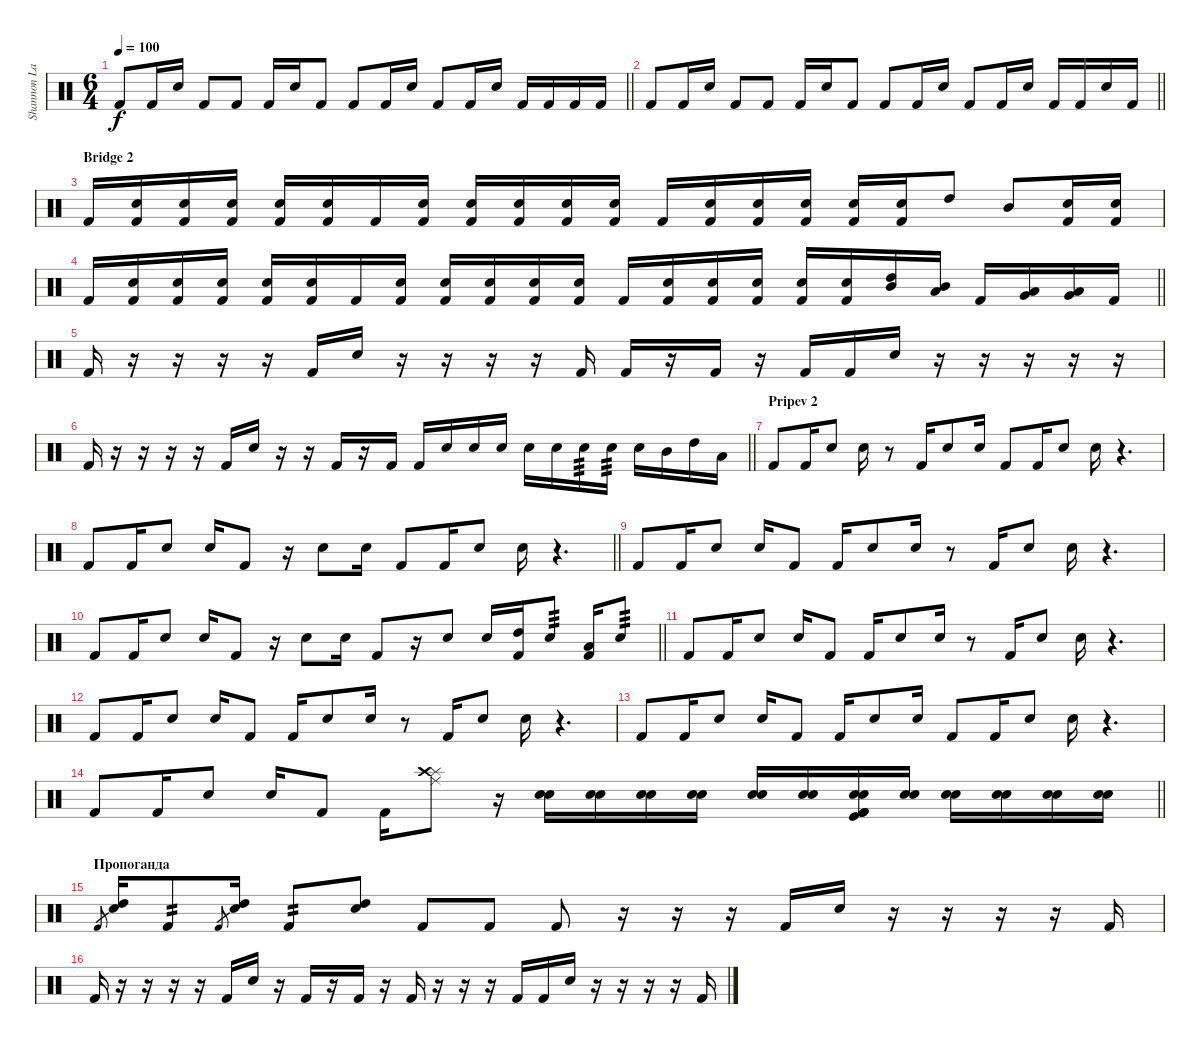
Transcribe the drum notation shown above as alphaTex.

\track ("Shannon Larkin [2]" "Shannon La") {instrument percussion}
\staff {score}
\articulation defaults
\ts (6 4)
\tempo 100
\clef neutral
\barLineRight lightlight
\ks c "Kick (hit) 2".8{dy f} "Kick (hit) 2".16 "Electric Snare (hit)".16 "Kick (hit) 2".8 "Kick (hit) 2".8 "Kick (hit) 2".16 "Electric Snare (hit)".16 "Kick (hit) 2".8 "Kick (hit) 2".8 "Kick (hit) 2".16 "Electric Snare (hit)".16 "Kick (hit) 2".8 "Kick (hit) 2".16 "Electric Snare (hit)".16 "Kick (hit) 2".16 "Kick (hit) 2".16 "Kick (hit) 2".16 "Kick (hit) 2".16
|
\barLineRight lightlight "Kick (hit) 2".8 "Kick (hit) 2".16 "Electric Snare (hit)".16 "Kick (hit) 2".8 "Kick (hit) 2".8 "Kick (hit) 2".16 "Electric Snare (hit)".16 "Kick (hit) 2".8 "Kick (hit) 2".8 "Kick (hit) 2".16 "Electric Snare (hit)".16 "Kick (hit) 2".8 "Kick (hit) 2".16 "Electric Snare (hit)".16 "Kick (hit) 2".16 "Kick (hit) 2".16 "Electric Snare (hit)".16 "Kick (hit) 2".16
|
\section ("" "Bridge 2")
"Kick (hit) 2".16 ("Kick (hit) 2" "Electric Snare (hit)").16 ("Kick (hit) 2" "Electric Snare (hit)").16 ("Kick (hit) 2" "Electric Snare (hit)").16 ("Kick (hit) 2" "Electric Snare (hit)").16 ("Kick (hit) 2" "Electric Snare (hit)").16 "Kick (hit) 2".16 ("Kick (hit) 2" "Electric Snare (hit)").16 ("Kick (hit) 2" "Electric Snare (hit)").16 ("Kick (hit) 2" "Electric Snare (hit)").16 ("Kick (hit) 2" "Electric Snare (hit)").16 ("Kick (hit) 2" "Electric Snare (hit)").16 "Kick (hit) 2".16 ("Kick (hit) 2" "Electric Snare (hit)").16 ("Kick (hit) 2" "Electric Snare (hit)").16 ("Kick (hit) 2" "Electric Snare (hit)").16 ("Kick (hit) 2" "Electric Snare (hit)").16 ("Kick (hit) 2" "Electric Snare (hit)").16 "High Tom (hit)".8 "Mid Tom (hit)".8 ("Kick (hit) 2" "Snare (hit) 2").16 ("Kick (hit) 2" "Snare (hit) 2").16 |
\barLineRight lightlight "Kick (hit) 2".16
("Kick (hit) 2" "Electric Snare (hit)").16 ("Kick (hit) 2" "Electric Snare (hit)").16 ("Kick (hit) 2" "Electric Snare (hit)").16 ("Kick (hit) 2" "Electric Snare (hit)").16 ("Kick (hit) 2" "Electric Snare (hit)").16 "Kick (hit) 2".16 ("Kick (hit) 2" "Electric Snare (hit)").16 ("Kick (hit) 2" "Electric Snare (hit)").16 ("Kick (hit) 2" "Electric Snare (hit)").16 ("Kick (hit) 2" "Electric Snare (hit)").16 ("Kick (hit) 2" "Electric Snare (hit)").16 "Kick (hit) 2".16 ("Kick (hit) 2" "Electric Snare (hit)").16 ("Kick (hit) 2" "Electric Snare (hit)").16 ("Kick (hit) 2" "Electric Snare (hit)").16 ("Kick (hit) 2" "Electric Snare (hit)").16 ("Kick (hit) 2" "Electric Snare (hit)").16 ("High Tom (hit)" "Mid Tom (hit)").16 ("Mid Tom (hit)" "Low Tom (hit)").16 "Kick (hit) 2".16 ("Low Tom (hit)" "Very Low Tom (hit)").16 ("Very Low Tom (hit)" "Low Floor Tom (hit)").16 "Kick (hit) 2".16 |
"Kick (hit) 2".16 r.16 r.16 r.16 r.16 "Kick (hit) 2".16 "Electric Snare (hit)".16 r.16 r.16 r.16 r.16 "Kick (hit) 2".16 "Kick (hit) 2".16 r.16 "Kick (hit) 2".16 r.16 "Kick (hit) 2".16 "Kick (hit) 2".16 "Electric Snare (hit)".16 r.16 r.16 r.16 r.16 r.16 |
\barLineRight lightlight "Kick (hit) 2".16
r.16 r.16 r.16 r.16 "Kick (hit) 2".16 "Electric Snare (hit)".16 r.16 r.16 "Kick (hit) 2".16 r.16 "Kick (hit) 2".16 "Kick (hit) 2".16 "Electric Snare (hit)".16 "Electric Snare (hit)".16 "Electric Snare (hit)".16 "Electric Snare (hit)".16 "Electric Snare (hit)".16 "Electric Snare (hit)".16{tp 3} "Electric Snare (hit)".16{tp 3} "Electric Snare (hit)".16 "Mid Tom (hit)".16 "High Tom (hit)".16 "Low Tom (hit)".16 |
\section ("" "Pripev 2")
"Kick (hit) 2".8 "Kick (hit) 2".16 "Electric Snare (hit)".8 "Electric Snare (hit)".16 r.8 "Kick (hit) 2".16 "Electric Snare (hit)".8 "Electric Snare (hit)".16 "Kick (hit) 2".8 "Kick (hit) 2".16 "Electric Snare (hit)".8 "Electric Snare (hit)".16 r.4{d} |
\barLineRight lightlight "Kick (hit) 2".8 "Kick (hit) 2".16 "Electric Snare (hit)".8 "Electric Snare (hit)".16 "Kick (hit) 2".8
r.16 "Electric Snare (hit)".8 "Electric Snare (hit)".16 "Kick (hit) 2".8 "Kick (hit) 2".16 "Electric Snare (hit)".8 "Electric Snare (hit)".16 r.4{d} |
"Kick (hit) 2".8 "Kick (hit) 2".16 "Electric Snare (hit)".8 "Electric Snare (hit)".16 "Kick (hit) 2".8 "Kick (hit) 2".16 "Electric Snare (hit)".8 "Electric Snare (hit)".16 r.8 "Kick (hit) 2".16 "Electric Snare (hit)".8 "Electric Snare (hit)".16 r.4{d} |
\barLineRight lightlight "Kick (hit) 2".8 "Kick (hit) 2".16 "Electric Snare (hit)".8 "Electric Snare (hit)".16 "Kick (hit) 2".8
r.16 "Electric Snare (hit)".8 "Electric Snare (hit)".16 "Kick (hit) 2".8 r.16 "Electric Snare (hit)".8 "Electric Snare (hit)".16 ("Kick (hit) 2" "High Tom (hit)").16 "Electric Snare (hit)".8{tp 3} ("Kick (hit) 2" "Low Tom (hit)").16 "Electric Snare (hit)".8{tp 3} |
"Kick (hit) 2".8 "Kick (hit) 2".16 "Electric Snare (hit)".8 "Electric Snare (hit)".16 "Kick (hit) 2".8 "Kick (hit) 2".16 "Electric Snare (hit)".8 "Electric Snare (hit)".16 r.8 "Kick (hit) 2".16 "Electric Snare (hit)".8 "Electric Snare (hit)".16 r.4{d} |
"Kick (hit) 2".8 "Kick (hit) 2".16 "Electric Snare (hit)".8 "Electric Snare (hit)".16 "Kick (hit) 2".8 "Kick (hit) 2".16 "Electric Snare (hit)".8 "Electric Snare (hit)".16 r.8 "Kick (hit) 2".16 "Electric Snare (hit)".8 "Electric Snare (hit)".16 r.4{d} |
"Kick (hit) 2".8 "Kick (hit) 2".16 "Electric Snare (hit)".8 "Electric Snare (hit)".16 "Kick (hit) 2".8 "Kick (hit) 2".16 "Electric Snare (hit)".8 "Electric Snare (hit)".16 "Kick (hit) 2".8 "Kick (hit) 2".16 "Electric Snare (hit)".8 "Electric Snare (hit)".16 r.4{d} |
\barLineRight lightlight "Kick (hit) 2".8 "Kick (hit) 2".16 "Electric Snare (hit)".8 "Electric Snare (hit)".16 "Kick (hit) 2".8 "Kick (hit) 2".16
("Ride (middle)" "Splash (hit)" "Crash high (hit)").8 r.16 ("Electric Snare (hit)" "Snare (hit) 2").16 ("Electric Snare (hit)" "Snare (hit) 2").16 ("Electric Snare (hit)" "Snare (hit) 2").16 ("Electric Snare (hit)" "Snare (hit) 2").16 ("Electric Snare (hit)" "Snare (hit) 2").16 ("Electric Snare (hit)" "Snare (hit) 2").16 ("Electric Snare (hit)" "Snare (hit) 2" "Kick (hit) 2" "Kick (hit)" "Kick (hit) 2").16 ("Electric Snare (hit)" "Snare (hit) 2").16 ("Electric Snare (hit)" "Snare (hit) 2").16 ("Electric Snare (hit)" "Snare (hit) 2").16 ("Electric Snare (hit)" "Snare (hit) 2").16 ("Electric Snare (hit)" "Snare (hit) 2").16 |
\section ("" "Пропоганда")
"Kick (hit) 2".8{gr} ("Electric Snare (hit)" "High Tom (hit)").16 "Kick (hit) 2".8{tp 2} "Kick (hit) 2".8{gr} ("Electric Snare (hit)" "High Tom (hit)").16 "Kick (hit) 2".8{tp 2} ("Snare (hit) 2" "High Tom (hit)").8 "Kick (hit) 2".8 "Kick (hit) 2".8 "Kick (hit) 2".8 r.16 r.16 r.16 "Kick (hit) 2".16 "Electric Snare (hit)".16 r.16 r.16 r.16 r.16 "Kick (hit) 2".16 |
"Kick (hit) 2".16 r.16 r.16 r.16 r.16 "Kick (hit) 2".16 "Electric Snare (hit)".16 r.16 "Kick (hit) 2".16 r.16 "Kick (hit) 2".16 r.16 "Kick (hit) 2".16 r.16 r.16 r.16 "Kick (hit) 2".16 "Kick (hit) 2".16 "Electric Snare (hit)".16 r.16 r.16 r.16 r.16 "Kick (hit) 2".16
